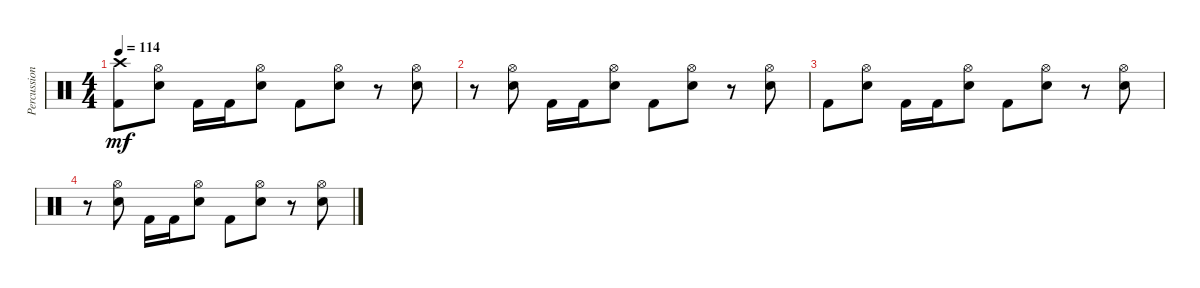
\track ("Percussion" "Percussion") {instrument percussion}
\staff {score}
\articulation defaults
\ts (4 4)
\tempo 114
\clef neutral
\ks c
("Crash high (hit)" "Kick (hit) 2").8{dy mf} ("Hi-Hat (open)" "Snare (hit) 2").8 "Kick (hit) 2".16 "Kick (hit) 2".16 ("Hi-Hat (open)" "Snare (hit) 2").8 "Kick (hit) 2".8 ("Hi-Hat (open)" "Snare (hit) 2").8 r.8 ("Hi-Hat (open)" "Snare (hit) 2").8 |
r.8 ("Hi-Hat (open)" "Snare (hit) 2").8 "Kick (hit) 2".16 "Kick (hit) 2".16 ("Hi-Hat (open)" "Snare (hit) 2").8 "Kick (hit) 2".8 ("Hi-Hat (open)" "Snare (hit) 2").8 r.8 ("Hi-Hat (open)" "Snare (hit) 2").8 |
"Kick (hit) 2".8 ("Hi-Hat (open)" "Snare (hit) 2").8 "Kick (hit) 2".16 "Kick (hit) 2".16 ("Hi-Hat (open)" "Snare (hit) 2").8 "Kick (hit) 2".8 ("Hi-Hat (open)" "Snare (hit) 2").8 r.8 ("Hi-Hat (open)" "Snare (hit) 2").8 |
r.8 ("Hi-Hat (open)" "Snare (hit) 2").8 "Kick (hit) 2".16 "Kick (hit) 2".16 ("Hi-Hat (open)" "Snare (hit) 2").8 "Kick (hit) 2".8 ("Hi-Hat (open)" "Snare (hit) 2").8 r.8 ("Hi-Hat (open)" "Snare (hit) 2").8
